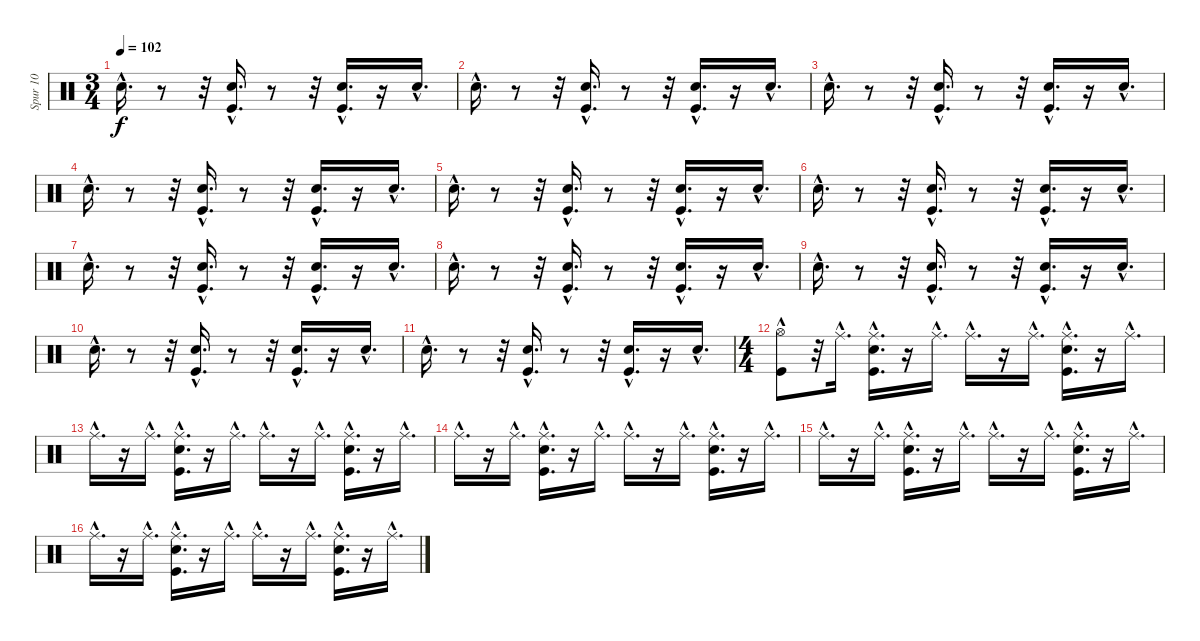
\track ("Spur 10" "Spur 10") {instrument percussion}
\staff {score}
\articulation defaults
\ts (3 4)
\tempo 102
\clef neutral
\ks c "Snare (hit) 2"{hac}.16{d dy f}
r.8 r.32 ("Snare (hit) 2"{hac} "Kick (hit)"{hac}).16{d} r.8 r.32 ("Snare (hit) 2"{hac} "Kick (hit)"{hac}).16{d} r.16 "Hand Clap (hit)"{hac}.16{d} |
"Snare (hit) 2"{hac}.16{d} r.8 r.32 ("Snare (hit) 2"{hac} "Kick (hit)"{hac}).16{d} r.8 r.32 ("Snare (hit) 2"{hac} "Kick (hit)"{hac}).16{d} r.16 "Hand Clap (hit)"{hac}.16{d} |
"Snare (hit) 2"{hac}.16{d} r.8 r.32 ("Snare (hit) 2"{hac} "Kick (hit)"{hac}).16{d} r.8 r.32 ("Snare (hit) 2"{hac} "Kick (hit)"{hac}).16{d} r.16 "Hand Clap (hit)"{hac}.16{d} |
"Snare (hit) 2"{hac}.16{d} r.8 r.32 ("Snare (hit) 2"{hac} "Kick (hit)"{hac}).16{d} r.8 r.32 ("Snare (hit) 2"{hac} "Kick (hit)"{hac}).16{d} r.16 "Hand Clap (hit)"{hac}.16{d} |
"Snare (hit) 2"{hac}.16{d} r.8 r.32 ("Snare (hit) 2"{hac} "Kick (hit)"{hac}).16{d} r.8 r.32 ("Snare (hit) 2"{hac} "Kick (hit)"{hac}).16{d} r.16 "Hand Clap (hit)"{hac}.16{d} |
"Snare (hit) 2"{hac}.16{d} r.8 r.32 ("Snare (hit) 2"{hac} "Kick (hit)"{hac}).16{d} r.8 r.32 ("Snare (hit) 2"{hac} "Kick (hit)"{hac}).16{d} r.16 "Hand Clap (hit)"{hac}.16{d} |
"Snare (hit) 2"{hac}.16{d} r.8 r.32 ("Snare (hit) 2"{hac} "Kick (hit)"{hac}).16{d} r.8 r.32 ("Snare (hit) 2"{hac} "Kick (hit)"{hac}).16{d} r.16 "Hand Clap (hit)"{hac}.16{d} |
"Snare (hit) 2"{hac}.16{d} r.8 r.32 ("Snare (hit) 2"{hac} "Kick (hit)"{hac}).16{d} r.8 r.32 ("Snare (hit) 2"{hac} "Kick (hit)"{hac}).16{d} r.16 "Hand Clap (hit)"{hac}.16{d} |
"Snare (hit) 2"{hac}.16{d} r.8 r.32 ("Snare (hit) 2"{hac} "Kick (hit)"{hac}).16{d} r.8 r.32 ("Snare (hit) 2"{hac} "Kick (hit)"{hac}).16{d} r.16 "Hand Clap (hit)"{hac}.16{d} |
"Snare (hit) 2"{hac}.16{d} r.8 r.32 ("Snare (hit) 2"{hac} "Kick (hit)"{hac}).16{d} r.8 r.32 ("Snare (hit) 2"{hac} "Kick (hit)"{hac}).16{d} r.16 "Hand Clap (hit)"{hac}.16{d} |
"Snare (hit) 2"{hac}.16{d} r.8 r.32 ("Snare (hit) 2"{hac} "Kick (hit)"{hac}).16{d} r.8 r.32 ("Snare (hit) 2"{hac} "Kick (hit)"{hac}).16{d} r.16 "Hand Clap (hit)"{hac}.16{d} |
\ts (4 4)
("Kick (hit)" "Hi-Hat (open)"{hac}).8 r.32 "Ride (middle)"{hac}.16{d} ("Ride (middle)"{hac} "Kick (hit)"{hac} "Hand Clap (hit)"{hac}).16{d} r.16 "Ride (middle)"{hac}.16{d} "Ride (middle)"{hac}.16{d} r.16 "Ride (middle)"{hac}.16{d} ("Ride (middle)"{hac} "Kick (hit)"{hac} "Hand Clap (hit)"{hac}).16{d} r.16 "Ride (middle)"{hac}.16{d} |
"Ride (middle)"{hac}.16{d} r.16 "Ride (middle)"{hac}.16{d} ("Ride (middle)"{hac} "Hand Clap (hit)"{hac} "Kick (hit)"{hac}).16{d} r.16 "Ride (middle)"{hac}.16{d} "Ride (middle)"{hac}.16{d} r.16 "Ride (middle)"{hac}.16{d} ("Ride (middle)"{hac} "Hand Clap (hit)"{hac} "Kick (hit)"{hac}).16{d} r.16 "Ride (middle)"{hac}.16{d} |
"Ride (middle)"{hac}.16{d} r.16 "Ride (middle)"{hac}.16{d} ("Ride (middle)"{hac} "Hand Clap (hit)"{hac} "Kick (hit)"{hac}).16{d} r.16 "Ride (middle)"{hac}.16{d} "Ride (middle)"{hac}.16{d} r.16 "Ride (middle)"{hac}.16{d} ("Ride (middle)"{hac} "Hand Clap (hit)"{hac} "Kick (hit)"{hac}).16{d} r.16 "Ride (middle)"{hac}.16{d} |
"Ride (middle)"{hac}.16{d} r.16 "Ride (middle)"{hac}.16{d} ("Ride (middle)"{hac} "Hand Clap (hit)"{hac} "Kick (hit)"{hac}).16{d} r.16 "Ride (middle)"{hac}.16{d} "Ride (middle)"{hac}.16{d} r.16 "Ride (middle)"{hac}.16{d} ("Ride (middle)"{hac} "Hand Clap (hit)"{hac} "Kick (hit)"{hac}).16{d} r.16 "Ride (middle)"{hac}.16{d} |
"Ride (middle)"{hac}.16{d} r.16 "Ride (middle)"{hac}.16{d} ("Ride (middle)"{hac} "Hand Clap (hit)"{hac} "Kick (hit)"{hac}).16{d} r.16 "Ride (middle)"{hac}.16{d} "Ride (middle)"{hac}.16{d} r.16 "Ride (middle)"{hac}.16{d} ("Ride (middle)"{hac} "Hand Clap (hit)"{hac} "Kick (hit)"{hac}).16{d} r.16 "Ride (middle)"{hac}.16{d}
